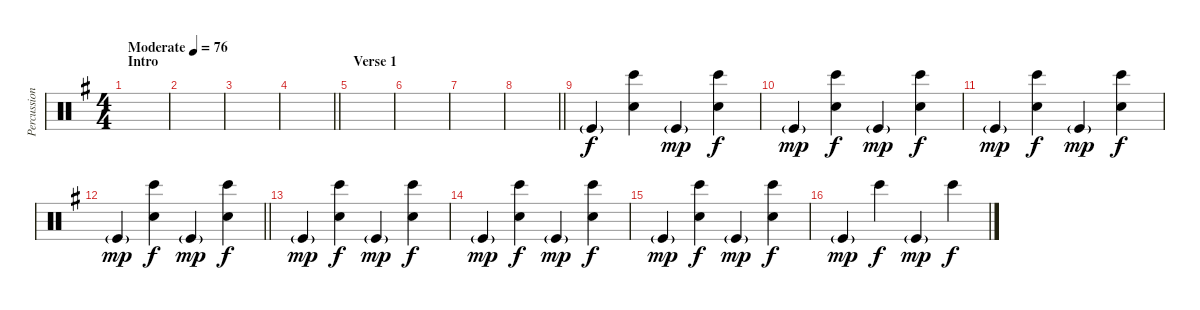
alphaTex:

\track ("Percussion(Synth)" "Percussion") {instrument percussion}
\staff {score}
\articulation defaults
\ts (4 4)
\section ("" "Intro")
\tempo (76 "Moderate")
\clef neutral
\ks g
|
|
|
\barLineRight lightlight
|
\section ("" "Verse 1")
|
|
|
\barLineRight lightlight
|
"Kick (hit)"{g}.4 ("Hand Clap (hit)" "Bongo High (hit)").4{dy f} "Kick (hit)"{g}.4{dy mp} ("Hand Clap (hit)" "Bongo High (hit)").4{dy f} |
"Kick (hit)"{g}.4{dy mp} ("Hand Clap (hit)" "Bongo High (hit)").4{dy f} "Kick (hit)"{g}.4{dy mp} ("Hand Clap (hit)" "Bongo High (hit)").4{dy f} |
"Kick (hit)"{g}.4{dy mp} ("Hand Clap (hit)" "Bongo High (hit)").4{dy f} "Kick (hit)"{g}.4{dy mp} ("Hand Clap (hit)" "Bongo High (hit)").4{dy f} |
\barLineRight lightlight "Kick (hit)"{g}.4{dy mp}
("Hand Clap (hit)" "Bongo High (hit)").4{dy f} "Kick (hit)"{g}.4{dy mp} ("Hand Clap (hit)" "Bongo High (hit)").4{dy f} |
"Kick (hit)"{g}.4{dy mp} ("Hand Clap (hit)" "Bongo High (hit)").4{dy f} "Kick (hit)"{g}.4{dy mp} ("Hand Clap (hit)" "Bongo High (hit)").4{dy f} |
"Kick (hit)"{g}.4{dy mp} ("Hand Clap (hit)" "Bongo High (hit)").4{dy f} "Kick (hit)"{g}.4{dy mp} ("Hand Clap (hit)" "Bongo High (hit)").4{dy f} |
"Kick (hit)"{g}.4{dy mp} ("Hand Clap (hit)" "Bongo High (hit)").4{dy f} "Kick (hit)"{g}.4{dy mp} ("Hand Clap (hit)" "Bongo High (hit)").4{dy f} |
"Kick (hit)"{g}.4{dy mp} "Bongo High (hit)".4{dy f} "Kick (hit)"{g}.4{dy mp} "Bongo High (hit)".4{dy f}
